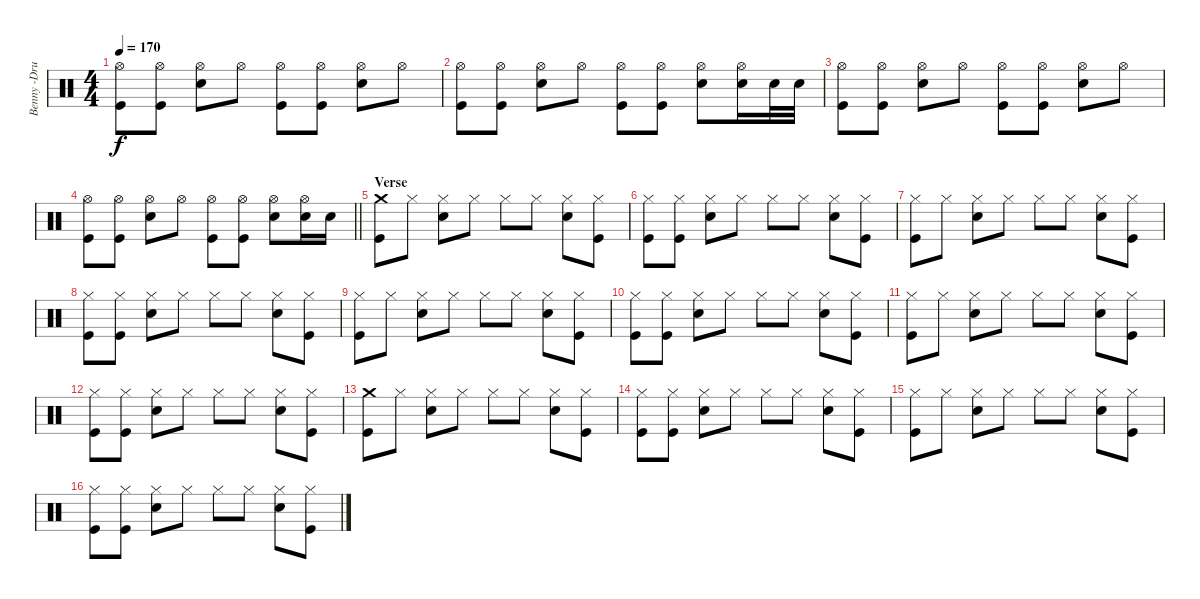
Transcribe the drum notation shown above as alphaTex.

\track ("Benny -Drums" "Benny -Dru") {instrument percussion}
\staff {score}
\articulation defaults
\ts (4 4)
\tempo 170
\clef neutral
\ks c
("Hi-Hat (open)" "Kick (hit)").8{dy f} ("Hi-Hat (open)" "Kick (hit)").8 ("Hi-Hat (open)" "Snare (hit) 2").8 "Hi-Hat (open)".8 ("Hi-Hat (open)" "Kick (hit)").8 ("Hi-Hat (open)" "Kick (hit)").8 ("Hi-Hat (open)" "Snare (hit) 2").8 "Hi-Hat (open)".8 |
("Hi-Hat (open)" "Kick (hit)").8 ("Hi-Hat (open)" "Kick (hit)").8 ("Hi-Hat (open)" "Snare (hit) 2").8 "Hi-Hat (open)".8 ("Hi-Hat (open)" "Kick (hit)").8 ("Hi-Hat (open)" "Kick (hit)").8 ("Hi-Hat (open)" "Snare (hit) 2").8 ("Hi-Hat (open)" "Snare (hit) 2").16 "Snare (hit) 2".32 "Snare (hit) 2".32 |
("Hi-Hat (open)" "Kick (hit)").8 ("Hi-Hat (open)" "Kick (hit)").8 ("Hi-Hat (open)" "Snare (hit) 2").8 "Hi-Hat (open)".8 ("Hi-Hat (open)" "Kick (hit)").8 ("Hi-Hat (open)" "Kick (hit)").8 ("Hi-Hat (open)" "Snare (hit) 2").8 "Hi-Hat (open)".8 |
\barLineRight lightlight
("Hi-Hat (open)" "Kick (hit)").8 ("Hi-Hat (open)" "Kick (hit)").8 ("Hi-Hat (open)" "Snare (hit) 2").8 "Hi-Hat (open)".8 ("Hi-Hat (open)" "Kick (hit)").8 ("Hi-Hat (open)" "Kick (hit)").8 ("Hi-Hat (open)" "Snare (hit) 2").8 ("Hi-Hat (open)" "Snare (hit) 2").16 "Snare (hit) 2".16 |
\section ("" "Verse")
("Crash medium (hit)" "Kick (hit)").8 "Hi-Hat (closed)".8 ("Hi-Hat (closed)" "Electric Snare (hit)").8 "Hi-Hat (closed)".8 "Hi-Hat (closed)".8 "Hi-Hat (closed)".8 ("Hi-Hat (closed)" "Electric Snare (hit)").8 ("Hi-Hat (closed)" "Kick (hit)").8 |
("Hi-Hat (closed)" "Kick (hit)").8 ("Hi-Hat (closed)" "Kick (hit)").8 ("Hi-Hat (closed)" "Electric Snare (hit)").8 "Hi-Hat (closed)".8 "Hi-Hat (closed)".8 "Hi-Hat (closed)".8 ("Hi-Hat (closed)" "Electric Snare (hit)").8 ("Hi-Hat (closed)" "Kick (hit)").8 |
("Hi-Hat (closed)" "Kick (hit)").8 "Hi-Hat (closed)".8 ("Hi-Hat (closed)" "Electric Snare (hit)").8 "Hi-Hat (closed)".8 "Hi-Hat (closed)".8 "Hi-Hat (closed)".8 ("Hi-Hat (closed)" "Electric Snare (hit)").8 ("Hi-Hat (closed)" "Kick (hit)").8 |
("Hi-Hat (closed)" "Kick (hit)").8 ("Hi-Hat (closed)" "Kick (hit)").8 ("Hi-Hat (closed)" "Electric Snare (hit)").8 "Hi-Hat (closed)".8 "Hi-Hat (closed)".8 "Hi-Hat (closed)".8 ("Hi-Hat (closed)" "Electric Snare (hit)").8 ("Hi-Hat (closed)" "Kick (hit)").8 |
("Hi-Hat (closed)" "Kick (hit)").8 "Hi-Hat (closed)".8 ("Hi-Hat (closed)" "Electric Snare (hit)").8 "Hi-Hat (closed)".8 "Hi-Hat (closed)".8 "Hi-Hat (closed)".8 ("Hi-Hat (closed)" "Electric Snare (hit)").8 ("Hi-Hat (closed)" "Kick (hit)").8 |
("Hi-Hat (closed)" "Kick (hit)").8 ("Hi-Hat (closed)" "Kick (hit)").8 ("Hi-Hat (closed)" "Electric Snare (hit)").8 "Hi-Hat (closed)".8 "Hi-Hat (closed)".8 "Hi-Hat (closed)".8 ("Hi-Hat (closed)" "Electric Snare (hit)").8 ("Hi-Hat (closed)" "Kick (hit)").8 |
("Hi-Hat (closed)" "Kick (hit)").8 "Hi-Hat (closed)".8 ("Hi-Hat (closed)" "Electric Snare (hit)").8 "Hi-Hat (closed)".8 "Hi-Hat (closed)".8 "Hi-Hat (closed)".8 ("Hi-Hat (closed)" "Electric Snare (hit)").8 ("Hi-Hat (closed)" "Kick (hit)").8 |
("Hi-Hat (closed)" "Kick (hit)").8 ("Hi-Hat (closed)" "Kick (hit)").8 ("Hi-Hat (closed)" "Electric Snare (hit)").8 "Hi-Hat (closed)".8 "Hi-Hat (closed)".8 "Hi-Hat (closed)".8 ("Hi-Hat (closed)" "Electric Snare (hit)").8 ("Hi-Hat (closed)" "Kick (hit)").8 |
("Crash medium (hit)" "Kick (hit)").8 "Hi-Hat (closed)".8 ("Hi-Hat (closed)" "Electric Snare (hit)").8 "Hi-Hat (closed)".8 "Hi-Hat (closed)".8 "Hi-Hat (closed)".8 ("Hi-Hat (closed)" "Electric Snare (hit)").8 ("Hi-Hat (closed)" "Kick (hit)").8 |
("Hi-Hat (closed)" "Kick (hit)").8 ("Hi-Hat (closed)" "Kick (hit)").8 ("Hi-Hat (closed)" "Electric Snare (hit)").8 "Hi-Hat (closed)".8 "Hi-Hat (closed)".8 "Hi-Hat (closed)".8 ("Hi-Hat (closed)" "Electric Snare (hit)").8 ("Hi-Hat (closed)" "Kick (hit)").8 |
("Hi-Hat (closed)" "Kick (hit)").8 "Hi-Hat (closed)".8 ("Hi-Hat (closed)" "Electric Snare (hit)").8 "Hi-Hat (closed)".8 "Hi-Hat (closed)".8 "Hi-Hat (closed)".8 ("Hi-Hat (closed)" "Electric Snare (hit)").8 ("Hi-Hat (closed)" "Kick (hit)").8 |
("Hi-Hat (closed)" "Kick (hit)").8 ("Hi-Hat (closed)" "Kick (hit)").8 ("Hi-Hat (closed)" "Electric Snare (hit)").8 "Hi-Hat (closed)".8 "Hi-Hat (closed)".8 "Hi-Hat (closed)".8 ("Hi-Hat (closed)" "Electric Snare (hit)").8 ("Hi-Hat (closed)" "Kick (hit)").8
